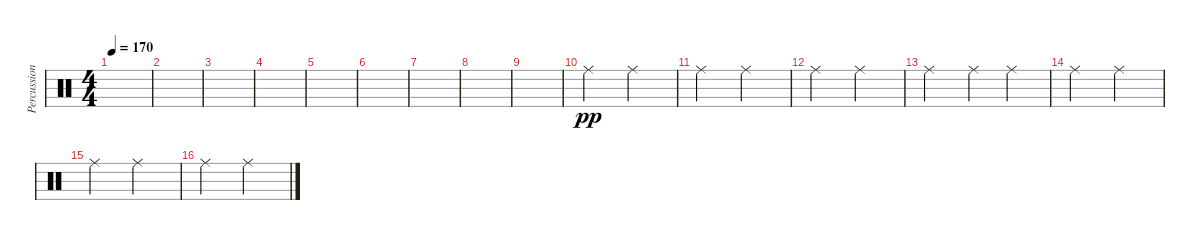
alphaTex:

\track ("Percussion" "Percussion") {instrument percussion}
\staff {score}
\articulation defaults
\ts (4 4)
\tempo 170
\clef neutral
\ks c
|
|
|
|
|
|
|
|
|
"Ride (middle)".2{dy pp} "Ride (middle)".2 |
"Ride (middle)".2 "Ride (middle)".2 |
"Ride (middle)".2 "Ride (middle)".2 |
"Ride (middle)".2 "Ride (middle)".4 "Ride (middle)".4 |
"Ride (middle)".2 "Ride (middle)".2 |
"Ride (middle)".2 "Ride (middle)".2 |
"Ride (middle)".2 "Ride (middle)".2
